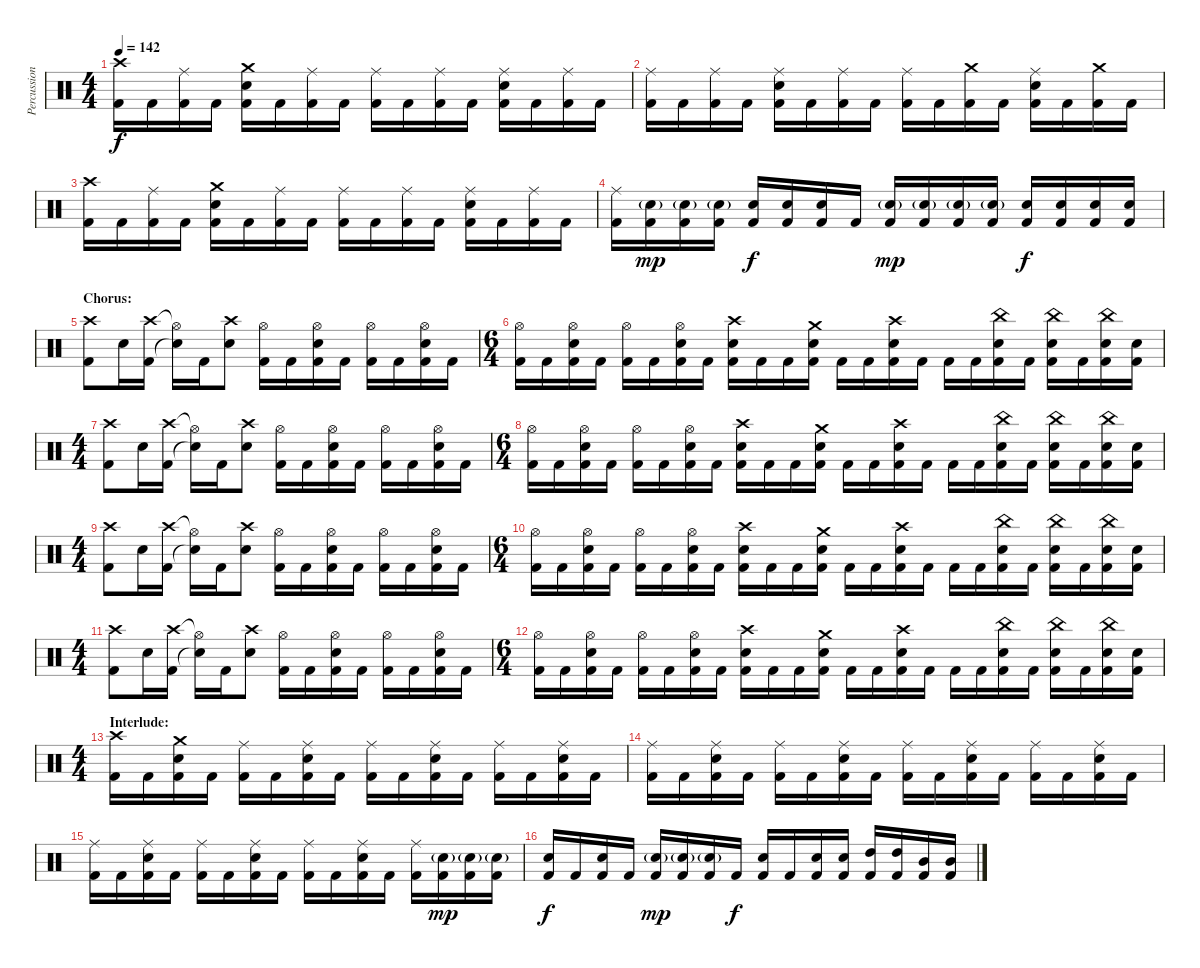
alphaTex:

\track ("Percussion" "Percussion") {instrument percussion}
\staff {score}
\articulation defaults
\ts (4 4)
\tempo 142
\clef neutral
\ks c
("Crash high (hit)" "Kick (hit) 2").16{dy f} "Kick (hit) 2".16 ("Ride (middle)" "Kick (hit) 2").16 "Kick (hit) 2".16 ("Crash medium (hit)" "Snare (hit) 2" "Kick (hit) 2").16 "Kick (hit) 2".16 ("Ride (middle)" "Kick (hit) 2").16 "Kick (hit) 2".16 ("Ride (middle)" "Kick (hit) 2").16 "Kick (hit) 2".16 ("Ride (middle)" "Kick (hit) 2").16 "Kick (hit) 2".16 ("Ride (middle)" "Snare (hit) 2" "Kick (hit) 2").16 "Kick (hit) 2".16 ("Ride (middle)" "Kick (hit) 2").16 "Kick (hit) 2".16 |
("Ride (middle)" "Kick (hit) 2").16 "Kick (hit) 2".16 ("Ride (middle)" "Kick (hit) 2").16 "Kick (hit) 2".16 ("Ride (middle)" "Snare (hit) 2" "Kick (hit) 2").16 "Kick (hit) 2".16 ("Ride (middle)" "Kick (hit) 2").16 "Kick (hit) 2".16 ("Ride (middle)" "Kick (hit) 2").16 "Kick (hit) 2".16 ("Crash medium (hit)" "Kick (hit) 2").16 "Kick (hit) 2".16 ("Ride (middle)" "Snare (hit) 2" "Kick (hit) 2").16 "Kick (hit) 2".16 ("Crash medium (hit)" "Kick (hit) 2").16 "Kick (hit) 2".16 |
("Crash high (hit)" "Kick (hit) 2").16 "Kick (hit) 2".16 ("Ride (middle)" "Kick (hit) 2").16 "Kick (hit) 2".16 ("Crash medium (hit)" "Snare (hit) 2" "Kick (hit) 2").16 "Kick (hit) 2".16 ("Ride (middle)" "Kick (hit) 2").16 "Kick (hit) 2".16 ("Ride (middle)" "Kick (hit) 2").16 "Kick (hit) 2".16 ("Ride (middle)" "Kick (hit) 2").16 "Kick (hit) 2".16 ("Ride (middle)" "Snare (hit) 2" "Kick (hit) 2").16 "Kick (hit) 2".16 ("Ride (middle)" "Kick (hit) 2").16 "Kick (hit) 2".16 |
("Ride (middle)" "Kick (hit) 2").16 ("Snare (hit) 2"{g} "Kick (hit) 2").16{dy mp} ("Snare (hit) 2"{g} "Kick (hit) 2").16 ("Snare (hit) 2"{g} "Kick (hit) 2").16 ("Snare (hit) 2" "Kick (hit) 2").16{dy f} ("Snare (hit) 2" "Kick (hit) 2").16 ("Snare (hit) 2" "Kick (hit) 2").16 "Kick (hit) 2".16 ("Snare (hit) 2"{g} "Kick (hit) 2").16{dy mp} ("Snare (hit) 2"{g} "Kick (hit) 2").16 ("Snare (hit) 2"{g} "Kick (hit) 2").16 ("Snare (hit) 2"{g} "Kick (hit) 2").16 ("Snare (hit) 2" "Kick (hit) 2").16{dy f} ("Snare (hit) 2" "Kick (hit) 2").16 ("Snare (hit) 2" "Kick (hit) 2").16 ("Snare (hit) 2" "Kick (hit) 2").16 |
\section ("" "Chorus:")
("Crash high (hit)" "Kick (hit) 2").8 "Snare (hit) 2".16 ("Crash high (hit)" "Kick (hit) 2").16 ("Hi-Hat (open)"{t} "Snare (hit)"{t}).16 "Kick (hit) 2".16 ("Crash high (hit)" "Snare (hit) 2").8 ("Hi-Hat (open)" "Kick (hit) 2").16 "Kick (hit) 2".16 ("Hi-Hat (open)" "Snare (hit) 2" "Kick (hit) 2").16 "Kick (hit) 2".16 ("Hi-Hat (open)" "Kick (hit) 2").16 "Kick (hit) 2".16 ("Hi-Hat (open)" "Snare (hit) 2" "Kick (hit) 2").16 "Kick (hit) 2".16 |
\ts (6 4)
("Hi-Hat (open)" "Kick (hit) 2").16 "Kick (hit) 2".16 ("Hi-Hat (open)" "Snare (hit) 2" "Kick (hit) 2").16 "Kick (hit) 2".16 ("Hi-Hat (open)" "Kick (hit) 2").16 "Kick (hit) 2".16 ("Hi-Hat (open)" "Snare (hit) 2" "Kick (hit) 2").16 "Kick (hit) 2".16 ("Crash high (hit)" "Snare (hit) 2" "Kick (hit) 2").16 "Kick (hit) 2".16 "Kick (hit) 2".16 ("Crash medium (hit)" "Snare (hit) 2" "Kick (hit) 2").16 "Kick (hit) 2".16 "Kick (hit) 2".16 ("Crash high (hit)" "Snare (hit) 2" "Kick (hit) 2").16 "Kick (hit) 2".16 "Kick (hit) 2".16 "Kick (hit) 2".16 ("China (hit)" "Snare (hit) 2" "Kick (hit) 2").16 "Kick (hit) 2".16 ("China (hit)" "Snare (hit) 2" "Kick (hit) 2").16 "Kick (hit) 2".16 ("China (hit)" "Snare (hit) 2" "Kick (hit) 2").16 ("Snare (hit) 2" "Kick (hit) 2").16 |
\ts (4 4)
("Crash high (hit)" "Kick (hit) 2").8 "Snare (hit) 2".16 ("Crash high (hit)" "Kick (hit) 2").16 ("Hi-Hat (open)"{t} "Snare (hit)"{t}).16 "Kick (hit) 2".16 ("Crash high (hit)" "Snare (hit) 2").8 ("Hi-Hat (open)" "Kick (hit) 2").16 "Kick (hit) 2".16 ("Hi-Hat (open)" "Snare (hit) 2" "Kick (hit) 2").16 "Kick (hit) 2".16 ("Hi-Hat (open)" "Kick (hit) 2").16 "Kick (hit) 2".16 ("Hi-Hat (open)" "Snare (hit) 2" "Kick (hit) 2").16 "Kick (hit) 2".16 |
\ts (6 4)
("Hi-Hat (open)" "Kick (hit) 2").16 "Kick (hit) 2".16 ("Hi-Hat (open)" "Snare (hit) 2" "Kick (hit) 2").16 "Kick (hit) 2".16 ("Hi-Hat (open)" "Kick (hit) 2").16 "Kick (hit) 2".16 ("Hi-Hat (open)" "Snare (hit) 2" "Kick (hit) 2").16 "Kick (hit) 2".16 ("Crash high (hit)" "Snare (hit) 2" "Kick (hit) 2").16 "Kick (hit) 2".16 "Kick (hit) 2".16 ("Crash medium (hit)" "Snare (hit) 2" "Kick (hit) 2").16 "Kick (hit) 2".16 "Kick (hit) 2".16 ("Crash high (hit)" "Snare (hit) 2" "Kick (hit) 2").16 "Kick (hit) 2".16 "Kick (hit) 2".16 "Kick (hit) 2".16 ("China (hit)" "Snare (hit) 2" "Kick (hit) 2").16 "Kick (hit) 2".16 ("China (hit)" "Snare (hit) 2" "Kick (hit) 2").16 "Kick (hit) 2".16 ("China (hit)" "Snare (hit) 2" "Kick (hit) 2").16 ("Snare (hit) 2" "Kick (hit) 2").16 |
\ts (4 4)
("Crash high (hit)" "Kick (hit) 2").8 "Snare (hit) 2".16 ("Crash high (hit)" "Kick (hit) 2").16 ("Hi-Hat (open)"{t} "Snare (hit)"{t}).16 "Kick (hit) 2".16 ("Crash high (hit)" "Snare (hit) 2").8 ("Hi-Hat (open)" "Kick (hit) 2").16 "Kick (hit) 2".16 ("Hi-Hat (open)" "Snare (hit) 2" "Kick (hit) 2").16 "Kick (hit) 2".16 ("Hi-Hat (open)" "Kick (hit) 2").16 "Kick (hit) 2".16 ("Hi-Hat (open)" "Snare (hit) 2" "Kick (hit) 2").16 "Kick (hit) 2".16 |
\ts (6 4)
("Hi-Hat (open)" "Kick (hit) 2").16 "Kick (hit) 2".16 ("Hi-Hat (open)" "Snare (hit) 2" "Kick (hit) 2").16 "Kick (hit) 2".16 ("Hi-Hat (open)" "Kick (hit) 2").16 "Kick (hit) 2".16 ("Hi-Hat (open)" "Snare (hit) 2" "Kick (hit) 2").16 "Kick (hit) 2".16 ("Crash high (hit)" "Snare (hit) 2" "Kick (hit) 2").16 "Kick (hit) 2".16 "Kick (hit) 2".16 ("Crash medium (hit)" "Snare (hit) 2" "Kick (hit) 2").16 "Kick (hit) 2".16 "Kick (hit) 2".16 ("Crash high (hit)" "Snare (hit) 2" "Kick (hit) 2").16 "Kick (hit) 2".16 "Kick (hit) 2".16 "Kick (hit) 2".16 ("China (hit)" "Snare (hit) 2" "Kick (hit) 2").16 "Kick (hit) 2".16 ("China (hit)" "Snare (hit) 2" "Kick (hit) 2").16 "Kick (hit) 2".16 ("China (hit)" "Snare (hit) 2" "Kick (hit) 2").16 ("Snare (hit) 2" "Kick (hit) 2").16 |
\ts (4 4)
("Crash high (hit)" "Kick (hit) 2").8 "Snare (hit) 2".16 ("Crash high (hit)" "Kick (hit) 2").16 ("Hi-Hat (open)"{t} "Snare (hit)"{t}).16 "Kick (hit) 2".16 ("Crash high (hit)" "Snare (hit) 2").8 ("Hi-Hat (open)" "Kick (hit) 2").16 "Kick (hit) 2".16 ("Hi-Hat (open)" "Snare (hit) 2" "Kick (hit) 2").16 "Kick (hit) 2".16 ("Hi-Hat (open)" "Kick (hit) 2").16 "Kick (hit) 2".16 ("Hi-Hat (open)" "Snare (hit) 2" "Kick (hit) 2").16 "Kick (hit) 2".16 |
\ts (6 4)
("Hi-Hat (open)" "Kick (hit) 2").16 "Kick (hit) 2".16 ("Hi-Hat (open)" "Snare (hit) 2" "Kick (hit) 2").16 "Kick (hit) 2".16 ("Hi-Hat (open)" "Kick (hit) 2").16 "Kick (hit) 2".16 ("Hi-Hat (open)" "Snare (hit) 2" "Kick (hit) 2").16 "Kick (hit) 2".16 ("Crash high (hit)" "Snare (hit) 2" "Kick (hit) 2").16 "Kick (hit) 2".16 "Kick (hit) 2".16 ("Crash medium (hit)" "Snare (hit) 2" "Kick (hit) 2").16 "Kick (hit) 2".16 "Kick (hit) 2".16 ("Crash high (hit)" "Snare (hit) 2" "Kick (hit) 2").16 "Kick (hit) 2".16 "Kick (hit) 2".16 "Kick (hit) 2".16 ("China (hit)" "Snare (hit) 2" "Kick (hit) 2").16 "Kick (hit) 2".16 ("China (hit)" "Snare (hit) 2" "Kick (hit) 2").16 "Kick (hit) 2".16 ("China (hit)" "Snare (hit) 2" "Kick (hit) 2").16 ("Snare (hit) 2" "Kick (hit) 2").16 |
\ts (4 4)
\section ("" "Interlude:")
("Crash high (hit)" "Kick (hit) 2").16 "Kick (hit) 2".16 ("Crash medium (hit)" "Snare (hit) 2" "Kick (hit) 2").16 "Kick (hit) 2".16 ("Ride (middle)" "Kick (hit) 2").16 "Kick (hit) 2".16 ("Ride (middle)" "Snare (hit) 2" "Kick (hit) 2").16 "Kick (hit) 2".16 ("Ride (middle)" "Kick (hit) 2").16 "Kick (hit) 2".16 ("Ride (middle)" "Snare (hit) 2" "Kick (hit) 2").16 "Kick (hit) 2".16 ("Ride (middle)" "Kick (hit) 2").16 "Kick (hit) 2".16 ("Ride (middle)" "Snare (hit) 2" "Kick (hit) 2").16 "Kick (hit) 2".16 |
("Ride (middle)" "Kick (hit) 2").16 "Kick (hit) 2".16 ("Ride (middle)" "Snare (hit) 2" "Kick (hit) 2").16 "Kick (hit) 2".16 ("Ride (middle)" "Kick (hit) 2").16 "Kick (hit) 2".16 ("Ride (middle)" "Snare (hit) 2" "Kick (hit) 2").16 "Kick (hit) 2".16 ("Ride (middle)" "Kick (hit) 2").16 "Kick (hit) 2".16 ("Ride (middle)" "Snare (hit) 2" "Kick (hit) 2").16 "Kick (hit) 2".16 ("Ride (middle)" "Kick (hit) 2").16 "Kick (hit) 2".16 ("Ride (middle)" "Snare (hit) 2" "Kick (hit) 2").16 "Kick (hit) 2".16 |
("Ride (middle)" "Kick (hit) 2").16 "Kick (hit) 2".16 ("Ride (middle)" "Snare (hit) 2" "Kick (hit) 2").16 "Kick (hit) 2".16 ("Ride (middle)" "Kick (hit) 2").16 "Kick (hit) 2".16 ("Ride (middle)" "Snare (hit) 2" "Kick (hit) 2").16 "Kick (hit) 2".16 ("Ride (middle)" "Kick (hit) 2").16 "Kick (hit) 2".16 ("Ride (middle)" "Snare (hit) 2" "Kick (hit) 2").16 "Kick (hit) 2".16 ("Ride (middle)" "Kick (hit) 2").16 ("Snare (hit) 2"{g} "Kick (hit) 2").16{dy mp} ("Snare (hit) 2"{g} "Kick (hit) 2").16 ("Snare (hit) 2"{g} "Kick (hit) 2").16 |
("Snare (hit) 2" "Kick (hit) 2").16{dy f} "Kick (hit) 2".16 ("Snare (hit) 2" "Kick (hit) 2").16 "Kick (hit) 2".16 ("Snare (hit) 2"{g} "Kick (hit) 2").16{dy mp} ("Snare (hit) 2"{g} "Kick (hit) 2").16 ("Snare (hit) 2"{g} "Kick (hit) 2").16 "Kick (hit) 2".16{dy f} ("Snare (hit) 2" "Kick (hit) 2").16 "Kick (hit) 2".16 ("Snare (hit) 2" "Kick (hit) 2").16 ("Snare (hit) 2" "Kick (hit) 2").16 ("High Tom (hit)" "Kick (hit) 2").16 ("High Tom (hit)" "Kick (hit) 2").16 ("Mid Tom (hit)" "Kick (hit) 2").16 ("Mid Tom (hit)" "Kick (hit) 2").16
